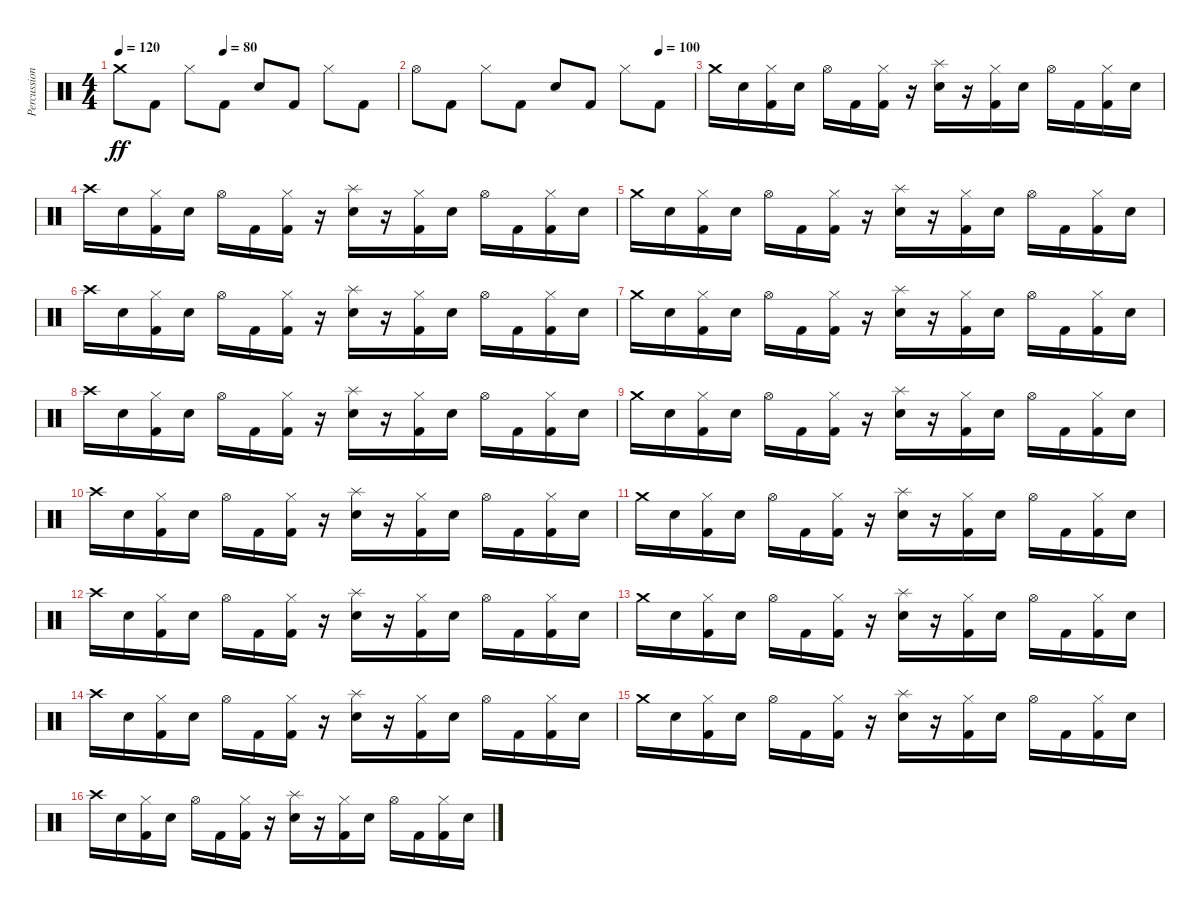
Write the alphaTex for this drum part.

\track ("Percussion" "Percussion") {instrument percussion}
\staff {score}
\articulation defaults
\ts (4 4)
\tempo 120
\tempo (80 0.375)
\clef neutral
\ks c "Crash medium (hit)".8{dy ff} "Kick (hit) 2".8 "Hi-Hat (closed)".8 "Kick (hit) 2".8 "Electric Snare (hit)".8 "Kick (hit) 2".8 "Hi-Hat (closed)".8 "Kick (hit) 2".8
|
\tempo (100 0.875)
"Hi-Hat (open)".8 "Kick (hit) 2".8 "Hi-Hat (closed)".8 "Kick (hit) 2".8 "Electric Snare (hit)".8 "Kick (hit) 2".8 "Hi-Hat (closed)".8 "Kick (hit) 2".8 |
"Crash medium (hit)".16 "Electric Snare (hit)".16 ("Hi-Hat (closed)" "Kick (hit) 2").16 "Electric Snare (hit)".16 "Hi-Hat (open)".16 "Kick (hit) 2".16 ("Hi-Hat (closed)" "Kick (hit) 2").16 r.16 ("Splash (hit)" "Electric Snare (hit)").16 r.16 ("Hi-Hat (closed)" "Kick (hit) 2").16 "Electric Snare (hit)".16 "Hi-Hat (open)".16 "Kick (hit) 2".16 ("Hi-Hat (closed)" "Kick (hit) 2").16 "Electric Snare (hit)".16 |
"Crash high (hit)".16 "Electric Snare (hit)".16 ("Hi-Hat (closed)" "Kick (hit) 2").16 "Electric Snare (hit)".16 "Hi-Hat (open)".16 "Kick (hit) 2".16 ("Hi-Hat (closed)" "Kick (hit) 2").16 r.16 ("Splash (hit)" "Electric Snare (hit)").16 r.16 ("Hi-Hat (closed)" "Kick (hit) 2").16 "Electric Snare (hit)".16 "Hi-Hat (open)".16 "Kick (hit) 2".16 ("Hi-Hat (closed)" "Kick (hit) 2").16 "Electric Snare (hit)".16 |
"Crash medium (hit)".16 "Electric Snare (hit)".16 ("Hi-Hat (closed)" "Kick (hit) 2").16 "Electric Snare (hit)".16 "Hi-Hat (open)".16 "Kick (hit) 2".16 ("Hi-Hat (closed)" "Kick (hit) 2").16 r.16 ("Splash (hit)" "Electric Snare (hit)").16 r.16 ("Hi-Hat (closed)" "Kick (hit) 2").16 "Electric Snare (hit)".16 "Hi-Hat (open)".16 "Kick (hit) 2".16 ("Hi-Hat (closed)" "Kick (hit) 2").16 "Electric Snare (hit)".16 |
"Crash high (hit)".16 "Electric Snare (hit)".16 ("Hi-Hat (closed)" "Kick (hit) 2").16 "Electric Snare (hit)".16 "Hi-Hat (open)".16 "Kick (hit) 2".16 ("Hi-Hat (closed)" "Kick (hit) 2").16 r.16 ("Splash (hit)" "Electric Snare (hit)").16 r.16 ("Hi-Hat (closed)" "Kick (hit) 2").16 "Electric Snare (hit)".16 "Hi-Hat (open)".16 "Kick (hit) 2".16 ("Hi-Hat (closed)" "Kick (hit) 2").16 "Electric Snare (hit)".16 |
"Crash medium (hit)".16 "Electric Snare (hit)".16 ("Hi-Hat (closed)" "Kick (hit) 2").16 "Electric Snare (hit)".16 "Hi-Hat (open)".16 "Kick (hit) 2".16 ("Hi-Hat (closed)" "Kick (hit) 2").16 r.16 ("Splash (hit)" "Electric Snare (hit)").16 r.16 ("Hi-Hat (closed)" "Kick (hit) 2").16 "Electric Snare (hit)".16 "Hi-Hat (open)".16 "Kick (hit) 2".16 ("Hi-Hat (closed)" "Kick (hit) 2").16 "Electric Snare (hit)".16 |
"Crash high (hit)".16 "Electric Snare (hit)".16 ("Hi-Hat (closed)" "Kick (hit) 2").16 "Electric Snare (hit)".16 "Hi-Hat (open)".16 "Kick (hit) 2".16 ("Hi-Hat (closed)" "Kick (hit) 2").16 r.16 ("Splash (hit)" "Electric Snare (hit)").16 r.16 ("Hi-Hat (closed)" "Kick (hit) 2").16 "Electric Snare (hit)".16 "Hi-Hat (open)".16 "Kick (hit) 2".16 ("Hi-Hat (closed)" "Kick (hit) 2").16 "Electric Snare (hit)".16 |
"Crash medium (hit)".16 "Electric Snare (hit)".16 ("Hi-Hat (closed)" "Kick (hit) 2").16 "Electric Snare (hit)".16 "Hi-Hat (open)".16 "Kick (hit) 2".16 ("Hi-Hat (closed)" "Kick (hit) 2").16 r.16 ("Splash (hit)" "Electric Snare (hit)").16 r.16 ("Hi-Hat (closed)" "Kick (hit) 2").16 "Electric Snare (hit)".16 "Hi-Hat (open)".16 "Kick (hit) 2".16 ("Hi-Hat (closed)" "Kick (hit) 2").16 "Electric Snare (hit)".16 |
"Crash high (hit)".16 "Electric Snare (hit)".16 ("Hi-Hat (closed)" "Kick (hit) 2").16 "Electric Snare (hit)".16 "Hi-Hat (open)".16 "Kick (hit) 2".16 ("Hi-Hat (closed)" "Kick (hit) 2").16 r.16 ("Splash (hit)" "Electric Snare (hit)").16 r.16 ("Hi-Hat (closed)" "Kick (hit) 2").16 "Electric Snare (hit)".16 "Hi-Hat (open)".16 "Kick (hit) 2".16 ("Hi-Hat (closed)" "Kick (hit) 2").16 "Electric Snare (hit)".16 |
"Crash medium (hit)".16 "Electric Snare (hit)".16 ("Hi-Hat (closed)" "Kick (hit) 2").16 "Electric Snare (hit)".16 "Hi-Hat (open)".16 "Kick (hit) 2".16 ("Hi-Hat (closed)" "Kick (hit) 2").16 r.16 ("Splash (hit)" "Electric Snare (hit)").16 r.16 ("Hi-Hat (closed)" "Kick (hit) 2").16 "Electric Snare (hit)".16 "Hi-Hat (open)".16 "Kick (hit) 2".16 ("Hi-Hat (closed)" "Kick (hit) 2").16 "Electric Snare (hit)".16 |
"Crash high (hit)".16 "Electric Snare (hit)".16 ("Hi-Hat (closed)" "Kick (hit) 2").16 "Electric Snare (hit)".16 "Hi-Hat (open)".16 "Kick (hit) 2".16 ("Hi-Hat (closed)" "Kick (hit) 2").16 r.16 ("Splash (hit)" "Electric Snare (hit)").16 r.16 ("Hi-Hat (closed)" "Kick (hit) 2").16 "Electric Snare (hit)".16 "Hi-Hat (open)".16 "Kick (hit) 2".16 ("Hi-Hat (closed)" "Kick (hit) 2").16 "Electric Snare (hit)".16 |
"Crash medium (hit)".16 "Electric Snare (hit)".16 ("Hi-Hat (closed)" "Kick (hit) 2").16 "Electric Snare (hit)".16 "Hi-Hat (open)".16 "Kick (hit) 2".16 ("Hi-Hat (closed)" "Kick (hit) 2").16 r.16 ("Splash (hit)" "Electric Snare (hit)").16 r.16 ("Hi-Hat (closed)" "Kick (hit) 2").16 "Electric Snare (hit)".16 "Hi-Hat (open)".16 "Kick (hit) 2".16 ("Hi-Hat (closed)" "Kick (hit) 2").16 "Electric Snare (hit)".16 |
"Crash high (hit)".16 "Electric Snare (hit)".16 ("Hi-Hat (closed)" "Kick (hit) 2").16 "Electric Snare (hit)".16 "Hi-Hat (open)".16 "Kick (hit) 2".16 ("Hi-Hat (closed)" "Kick (hit) 2").16 r.16 ("Splash (hit)" "Electric Snare (hit)").16 r.16 ("Hi-Hat (closed)" "Kick (hit) 2").16 "Electric Snare (hit)".16 "Hi-Hat (open)".16 "Kick (hit) 2".16 ("Hi-Hat (closed)" "Kick (hit) 2").16 "Electric Snare (hit)".16 |
"Crash medium (hit)".16 "Electric Snare (hit)".16 ("Hi-Hat (closed)" "Kick (hit) 2").16 "Electric Snare (hit)".16 "Hi-Hat (open)".16 "Kick (hit) 2".16 ("Hi-Hat (closed)" "Kick (hit) 2").16 r.16 ("Splash (hit)" "Electric Snare (hit)").16 r.16 ("Hi-Hat (closed)" "Kick (hit) 2").16 "Electric Snare (hit)".16 "Hi-Hat (open)".16 "Kick (hit) 2".16 ("Hi-Hat (closed)" "Kick (hit) 2").16 "Electric Snare (hit)".16 |
"Crash high (hit)".16 "Electric Snare (hit)".16 ("Hi-Hat (closed)" "Kick (hit) 2").16 "Electric Snare (hit)".16 "Hi-Hat (open)".16 "Kick (hit) 2".16 ("Hi-Hat (closed)" "Kick (hit) 2").16 r.16 ("Splash (hit)" "Electric Snare (hit)").16 r.16 ("Hi-Hat (closed)" "Kick (hit) 2").16 "Electric Snare (hit)".16 "Hi-Hat (open)".16 "Kick (hit) 2".16 ("Hi-Hat (closed)" "Kick (hit) 2").16 "Electric Snare (hit)".16
